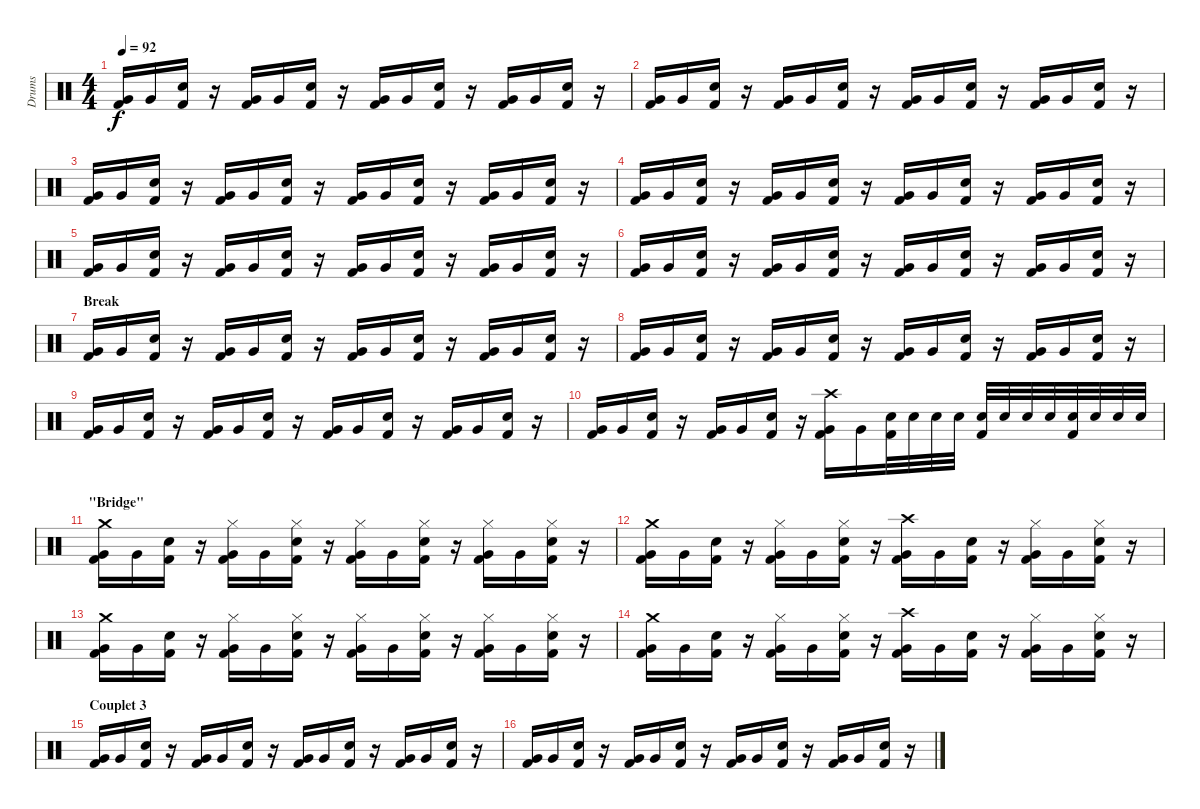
\track ("Drums" "Drums") {instrument percussion}
\staff {score}
\articulation defaults
\ts (4 4)
\tempo 92
\clef neutral
\ks c
("Very Low Tom (hit)" "Kick (hit) 2").16{dy f} "Very Low Tom (hit)".16 ("Electric Snare (hit)" "Kick (hit) 2").16 r.16 ("Very Low Tom (hit)" "Kick (hit) 2").16 "Very Low Tom (hit)".16 ("Electric Snare (hit)" "Kick (hit) 2").16 r.16 ("Very Low Tom (hit)" "Kick (hit) 2").16 "Very Low Tom (hit)".16 ("Electric Snare (hit)" "Kick (hit) 2").16 r.16 ("Very Low Tom (hit)" "Kick (hit) 2").16 "Very Low Tom (hit)".16 ("Electric Snare (hit)" "Kick (hit) 2").16 r.16 |
("Very Low Tom (hit)" "Kick (hit) 2").16 "Very Low Tom (hit)".16 ("Electric Snare (hit)" "Kick (hit) 2").16 r.16 ("Very Low Tom (hit)" "Kick (hit) 2").16 "Very Low Tom (hit)".16 ("Electric Snare (hit)" "Kick (hit) 2").16 r.16 ("Very Low Tom (hit)" "Kick (hit) 2").16 "Very Low Tom (hit)".16 ("Electric Snare (hit)" "Kick (hit) 2").16 r.16 ("Very Low Tom (hit)" "Kick (hit) 2").16 "Very Low Tom (hit)".16 ("Electric Snare (hit)" "Kick (hit) 2").16 r.16 |
("Very Low Tom (hit)" "Kick (hit) 2").16 "Very Low Tom (hit)".16 ("Electric Snare (hit)" "Kick (hit) 2").16 r.16 ("Very Low Tom (hit)" "Kick (hit) 2").16 "Very Low Tom (hit)".16 ("Electric Snare (hit)" "Kick (hit) 2").16 r.16 ("Very Low Tom (hit)" "Kick (hit) 2").16 "Very Low Tom (hit)".16 ("Electric Snare (hit)" "Kick (hit) 2").16 r.16 ("Very Low Tom (hit)" "Kick (hit) 2").16 "Very Low Tom (hit)".16 ("Electric Snare (hit)" "Kick (hit) 2").16 r.16 |
("Very Low Tom (hit)" "Kick (hit) 2").16 "Very Low Tom (hit)".16 ("Electric Snare (hit)" "Kick (hit) 2").16 r.16 ("Very Low Tom (hit)" "Kick (hit) 2").16 "Very Low Tom (hit)".16 ("Electric Snare (hit)" "Kick (hit) 2").16 r.16 ("Very Low Tom (hit)" "Kick (hit) 2").16 "Very Low Tom (hit)".16 ("Electric Snare (hit)" "Kick (hit) 2").16 r.16 ("Very Low Tom (hit)" "Kick (hit) 2").16 "Very Low Tom (hit)".16 ("Electric Snare (hit)" "Kick (hit) 2").16 r.16 |
("Very Low Tom (hit)" "Kick (hit) 2").16 "Very Low Tom (hit)".16 ("Electric Snare (hit)" "Kick (hit) 2").16 r.16 ("Very Low Tom (hit)" "Kick (hit) 2").16 "Very Low Tom (hit)".16 ("Electric Snare (hit)" "Kick (hit) 2").16 r.16 ("Very Low Tom (hit)" "Kick (hit) 2").16 "Very Low Tom (hit)".16 ("Electric Snare (hit)" "Kick (hit) 2").16 r.16 ("Very Low Tom (hit)" "Kick (hit) 2").16 "Very Low Tom (hit)".16 ("Electric Snare (hit)" "Kick (hit) 2").16 r.16 |
("Very Low Tom (hit)" "Kick (hit) 2").16 "Very Low Tom (hit)".16 ("Electric Snare (hit)" "Kick (hit) 2").16 r.16 ("Very Low Tom (hit)" "Kick (hit) 2").16 "Very Low Tom (hit)".16 ("Electric Snare (hit)" "Kick (hit) 2").16 r.16 ("Very Low Tom (hit)" "Kick (hit) 2").16 "Very Low Tom (hit)".16 ("Electric Snare (hit)" "Kick (hit) 2").16 r.16 ("Very Low Tom (hit)" "Kick (hit) 2").16 "Very Low Tom (hit)".16 ("Electric Snare (hit)" "Kick (hit) 2").16 r.16 |
\section ("" "Break")
("Very Low Tom (hit)" "Kick (hit) 2").16 "Very Low Tom (hit)".16 ("Electric Snare (hit)" "Kick (hit) 2").16 r.16 ("Very Low Tom (hit)" "Kick (hit) 2").16 "Very Low Tom (hit)".16 ("Electric Snare (hit)" "Kick (hit) 2").16 r.16 ("Very Low Tom (hit)" "Kick (hit) 2").16 "Very Low Tom (hit)".16 ("Electric Snare (hit)" "Kick (hit) 2").16 r.16 ("Very Low Tom (hit)" "Kick (hit) 2").16 "Very Low Tom (hit)".16 ("Electric Snare (hit)" "Kick (hit) 2").16 r.16 |
("Very Low Tom (hit)" "Kick (hit) 2").16 "Very Low Tom (hit)".16 ("Electric Snare (hit)" "Kick (hit) 2").16 r.16 ("Very Low Tom (hit)" "Kick (hit) 2").16 "Very Low Tom (hit)".16 ("Electric Snare (hit)" "Kick (hit) 2").16 r.16 ("Very Low Tom (hit)" "Kick (hit) 2").16 "Very Low Tom (hit)".16 ("Electric Snare (hit)" "Kick (hit) 2").16 r.16 ("Very Low Tom (hit)" "Kick (hit) 2").16 "Very Low Tom (hit)".16 ("Electric Snare (hit)" "Kick (hit) 2").16 r.16 |
("Very Low Tom (hit)" "Kick (hit) 2").16 "Very Low Tom (hit)".16 ("Electric Snare (hit)" "Kick (hit) 2").16 r.16 ("Very Low Tom (hit)" "Kick (hit) 2").16 "Very Low Tom (hit)".16 ("Electric Snare (hit)" "Kick (hit) 2").16 r.16 ("Very Low Tom (hit)" "Kick (hit) 2").16 "Very Low Tom (hit)".16 ("Electric Snare (hit)" "Kick (hit) 2").16 r.16 ("Very Low Tom (hit)" "Kick (hit) 2").16 "Very Low Tom (hit)".16 ("Electric Snare (hit)" "Kick (hit) 2").16 r.16 |
("Very Low Tom (hit)" "Kick (hit) 2").16 "Very Low Tom (hit)".16 ("Electric Snare (hit)" "Kick (hit) 2").16 r.16 ("Very Low Tom (hit)" "Kick (hit) 2").16 "Very Low Tom (hit)".16 ("Electric Snare (hit)" "Kick (hit) 2").16 r.16 ("Crash high (hit)" "Very Low Tom (hit)" "Kick (hit) 2").16 "Very Low Tom (hit)".16 ("Electric Snare (hit)" "Kick (hit) 2").32 "Electric Snare (hit)".32 "Electric Snare (hit)".32 "Electric Snare (hit)".32 ("Electric Snare (hit)" "Kick (hit) 2").32 "Electric Snare (hit)".32 "Electric Snare (hit)".32 "Electric Snare (hit)".32 ("Electric Snare (hit)" "Kick (hit) 2").32 "Electric Snare (hit)".32 "Electric Snare (hit)".32 "Electric Snare (hit)".32 |
\section ("" "\"Bridge\"")
("Crash medium (hit)" "Very Low Tom (hit)" "Kick (hit) 2").16 "Very Low Tom (hit)".16 ("Electric Snare (hit)" "Kick (hit) 2").16 r.16 ("Hi-Hat (closed)" "Very Low Tom (hit)" "Kick (hit) 2").16 "Very Low Tom (hit)".16 ("Hi-Hat (closed)" "Electric Snare (hit)" "Kick (hit) 2").16 r.16 ("Hi-Hat (closed)" "Very Low Tom (hit)" "Kick (hit) 2").16 "Very Low Tom (hit)".16 ("Hi-Hat (closed)" "Electric Snare (hit)" "Kick (hit) 2").16 r.16 ("Hi-Hat (closed)" "Very Low Tom (hit)" "Kick (hit) 2").16 "Very Low Tom (hit)".16 ("Hi-Hat (closed)" "Electric Snare (hit)" "Kick (hit) 2").16 r.16 |
("Crash medium (hit)" "Very Low Tom (hit)" "Kick (hit) 2").16 "Very Low Tom (hit)".16 ("Electric Snare (hit)" "Kick (hit) 2").16 r.16 ("Hi-Hat (closed)" "Very Low Tom (hit)" "Kick (hit) 2").16 "Very Low Tom (hit)".16 ("Hi-Hat (closed)" "Electric Snare (hit)" "Kick (hit) 2").16 r.16 ("Crash high (hit)" "Very Low Tom (hit)" "Kick (hit) 2").16 "Very Low Tom (hit)".16 ("Electric Snare (hit)" "Kick (hit) 2").16 r.16 ("Hi-Hat (closed)" "Very Low Tom (hit)" "Kick (hit) 2").16 "Very Low Tom (hit)".16 ("Hi-Hat (closed)" "Electric Snare (hit)" "Kick (hit) 2").16 r.16 |
("Crash medium (hit)" "Very Low Tom (hit)" "Kick (hit) 2").16 "Very Low Tom (hit)".16 ("Electric Snare (hit)" "Kick (hit) 2").16 r.16 ("Hi-Hat (closed)" "Very Low Tom (hit)" "Kick (hit) 2").16 "Very Low Tom (hit)".16 ("Hi-Hat (closed)" "Electric Snare (hit)" "Kick (hit) 2").16 r.16 ("Hi-Hat (closed)" "Very Low Tom (hit)" "Kick (hit) 2").16 "Very Low Tom (hit)".16 ("Hi-Hat (closed)" "Electric Snare (hit)" "Kick (hit) 2").16 r.16 ("Hi-Hat (closed)" "Very Low Tom (hit)" "Kick (hit) 2").16 "Very Low Tom (hit)".16 ("Hi-Hat (closed)" "Electric Snare (hit)" "Kick (hit) 2").16 r.16 |
("Crash medium (hit)" "Very Low Tom (hit)" "Kick (hit) 2").16 "Very Low Tom (hit)".16 ("Electric Snare (hit)" "Kick (hit) 2").16 r.16 ("Hi-Hat (closed)" "Very Low Tom (hit)" "Kick (hit) 2").16 "Very Low Tom (hit)".16 ("Hi-Hat (closed)" "Electric Snare (hit)" "Kick (hit) 2").16 r.16 ("Crash high (hit)" "Very Low Tom (hit)" "Kick (hit) 2").16 "Very Low Tom (hit)".16 ("Electric Snare (hit)" "Kick (hit) 2").16 r.16 ("Hi-Hat (closed)" "Very Low Tom (hit)" "Kick (hit) 2").16 "Very Low Tom (hit)".16 ("Hi-Hat (closed)" "Electric Snare (hit)" "Kick (hit) 2").16 r.16 |
\section ("" "Couplet 3")
("Very Low Tom (hit)" "Kick (hit) 2").16 "Very Low Tom (hit)".16 ("Electric Snare (hit)" "Kick (hit) 2").16 r.16 ("Very Low Tom (hit)" "Kick (hit) 2").16 "Very Low Tom (hit)".16 ("Electric Snare (hit)" "Kick (hit) 2").16 r.16 ("Very Low Tom (hit)" "Kick (hit) 2").16 "Very Low Tom (hit)".16 ("Electric Snare (hit)" "Kick (hit) 2").16 r.16 ("Very Low Tom (hit)" "Kick (hit) 2").16 "Very Low Tom (hit)".16 ("Electric Snare (hit)" "Kick (hit) 2").16 r.16 |
("Very Low Tom (hit)" "Kick (hit) 2").16 "Very Low Tom (hit)".16 ("Electric Snare (hit)" "Kick (hit) 2").16 r.16 ("Very Low Tom (hit)" "Kick (hit) 2").16 "Very Low Tom (hit)".16 ("Electric Snare (hit)" "Kick (hit) 2").16 r.16 ("Very Low Tom (hit)" "Kick (hit) 2").16 "Very Low Tom (hit)".16 ("Electric Snare (hit)" "Kick (hit) 2").16 r.16 ("Very Low Tom (hit)" "Kick (hit) 2").16 "Very Low Tom (hit)".16 ("Electric Snare (hit)" "Kick (hit) 2").16 r.16
